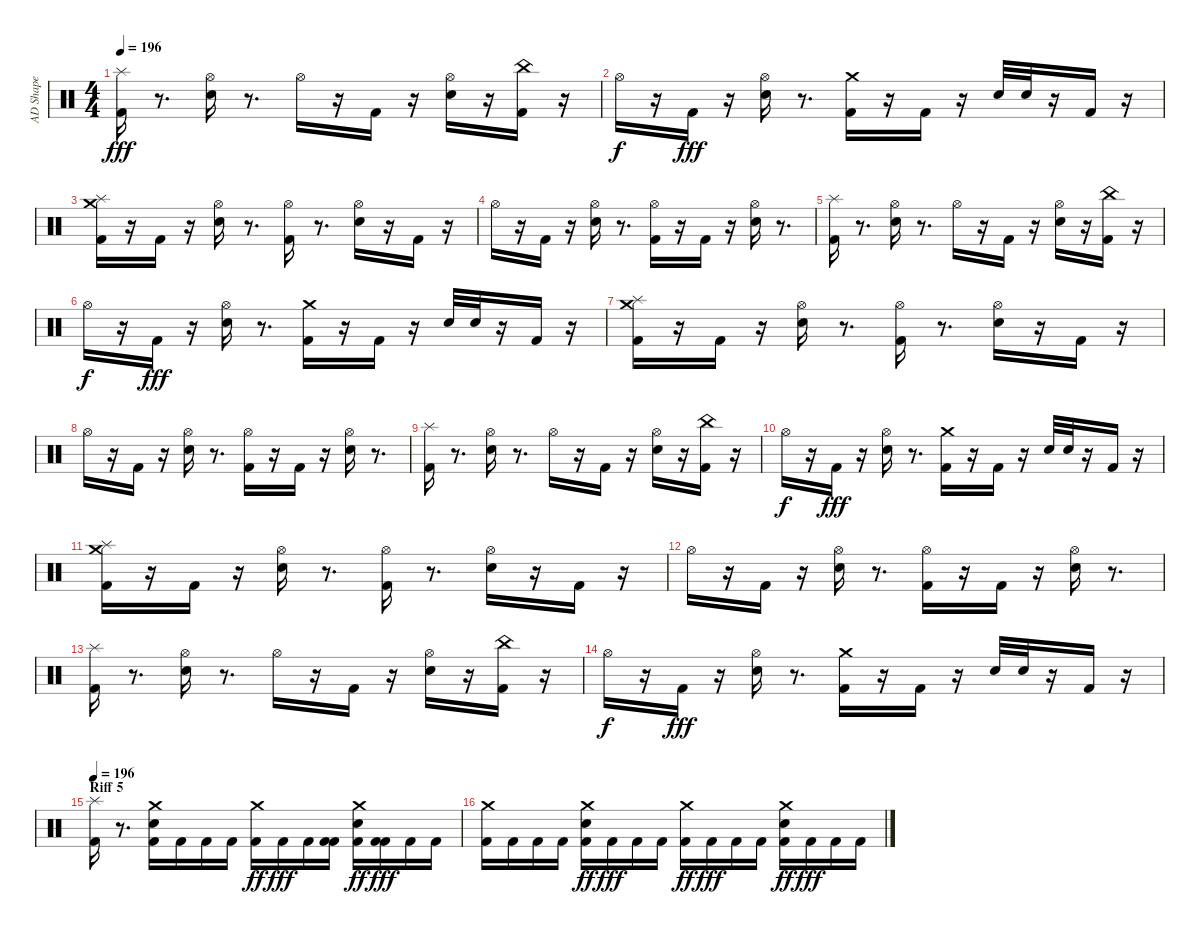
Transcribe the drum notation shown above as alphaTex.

\track ("AD Shape" "AD Shape") {instrument percussion}
\staff {score}
\articulation defaults
\ts (4 4)
\tempo 196
\clef neutral
\ks c
("Kick (hit) 2" "Splash (hit)").16{dy fff} r.8{d} ("Snare (hit) 2" "Hi-Hat (open)").16 r.8{d} "Hi-Hat (open)".16 r.16 "Kick (hit) 2".16 r.16 ("Snare (hit) 2" "Hi-Hat (open)").16 r.16 ("Kick (hit) 2" "China (hit)").16 r.16 |
"Hi-Hat (open)".16{dy f} r.16 "Kick (hit) 2".16{dy fff} r.16 ("Snare (hit) 2" "Hi-Hat (open)").16 r.8{d} ("Kick (hit) 2" "Crash medium (hit)").16 r.16 "Kick (hit) 2".16 r.16 "Snare (hit) 2".32 "Snare (hit) 2".32 r.16 "Kick (hit) 2".16 r.16 |
("Kick (hit) 2" "Splash (hit)" "Crash medium (hit)").16 r.16 "Kick (hit) 2".16 r.16 ("Snare (hit) 2" "Hi-Hat (open)").16 r.8{d} ("Kick (hit) 2" "Hi-Hat (open)").16 r.8{d} ("Snare (hit) 2" "Hi-Hat (open)").16 r.16 "Kick (hit) 2".16 r.16 |
"Hi-Hat (open)".16 r.16 "Kick (hit) 2".16 r.16 ("Snare (hit) 2" "Hi-Hat (open)").16 r.8{d} ("Kick (hit) 2" "Hi-Hat (open)").16 r.16 "Kick (hit) 2".16 r.16 ("Snare (hit) 2" "Hi-Hat (open)").16 r.8{d} |
("Kick (hit) 2" "Splash (hit)").16 r.8{d} ("Snare (hit) 2" "Hi-Hat (open)").16 r.8{d} "Hi-Hat (open)".16 r.16 "Kick (hit) 2".16 r.16 ("Snare (hit) 2" "Hi-Hat (open)").16 r.16 ("Kick (hit) 2" "China (hit)").16 r.16 |
"Hi-Hat (open)".16{dy f} r.16 "Kick (hit) 2".16{dy fff} r.16 ("Snare (hit) 2" "Hi-Hat (open)").16 r.8{d} ("Kick (hit) 2" "Crash medium (hit)").16 r.16 "Kick (hit) 2".16 r.16 "Snare (hit) 2".32 "Snare (hit) 2".32 r.16 "Kick (hit) 2".16 r.16 |
("Kick (hit) 2" "Splash (hit)" "Crash medium (hit)").16 r.16 "Kick (hit) 2".16 r.16 ("Snare (hit) 2" "Hi-Hat (open)").16 r.8{d} ("Kick (hit) 2" "Hi-Hat (open)").16 r.8{d} ("Snare (hit) 2" "Hi-Hat (open)").16 r.16 "Kick (hit) 2".16 r.16 |
"Hi-Hat (open)".16 r.16 "Kick (hit) 2".16 r.16 ("Snare (hit) 2" "Hi-Hat (open)").16 r.8{d} ("Kick (hit) 2" "Hi-Hat (open)").16 r.16 "Kick (hit) 2".16 r.16 ("Snare (hit) 2" "Hi-Hat (open)").16 r.8{d} |
("Kick (hit) 2" "Splash (hit)").16 r.8{d} ("Snare (hit) 2" "Hi-Hat (open)").16 r.8{d} "Hi-Hat (open)".16 r.16 "Kick (hit) 2".16 r.16 ("Snare (hit) 2" "Hi-Hat (open)").16 r.16 ("Kick (hit) 2" "China (hit)").16 r.16 |
"Hi-Hat (open)".16{dy f} r.16 "Kick (hit) 2".16{dy fff} r.16 ("Snare (hit) 2" "Hi-Hat (open)").16 r.8{d} ("Kick (hit) 2" "Crash medium (hit)").16 r.16 "Kick (hit) 2".16 r.16 "Snare (hit) 2".32 "Snare (hit) 2".32 r.16 "Kick (hit) 2".16 r.16 |
("Kick (hit) 2" "Splash (hit)" "Crash medium (hit)").16 r.16 "Kick (hit) 2".16 r.16 ("Snare (hit) 2" "Hi-Hat (open)").16 r.8{d} ("Kick (hit) 2" "Hi-Hat (open)").16 r.8{d} ("Snare (hit) 2" "Hi-Hat (open)").16 r.16 "Kick (hit) 2".16 r.16 |
"Hi-Hat (open)".16 r.16 "Kick (hit) 2".16 r.16 ("Snare (hit) 2" "Hi-Hat (open)").16 r.8{d} ("Kick (hit) 2" "Hi-Hat (open)").16 r.16 "Kick (hit) 2".16 r.16 ("Snare (hit) 2" "Hi-Hat (open)").16 r.8{d} |
("Kick (hit) 2" "Splash (hit)").16 r.8{d} ("Snare (hit) 2" "Hi-Hat (open)").16 r.8{d} "Hi-Hat (open)".16 r.16 "Kick (hit) 2".16 r.16 ("Snare (hit) 2" "Hi-Hat (open)").16 r.16 ("Kick (hit) 2" "China (hit)").16 r.16 |
"Hi-Hat (open)".16{dy f} r.16 "Kick (hit) 2".16{dy fff} r.16 ("Snare (hit) 2" "Hi-Hat (open)").16 r.8{d} ("Kick (hit) 2" "Crash medium (hit)").16 r.16 "Kick (hit) 2".16 r.16 "Snare (hit) 2".32 "Snare (hit) 2".32 r.16 "Kick (hit) 2".16 r.16 |
\section ("" "Riff 5")
\tempo 196
("Kick (hit) 2" "Splash (hit)").16 r.8{d} ("Kick (hit) 2" "Snare (hit) 2" "Crash medium (hit)").16 "Kick (hit) 2".16 "Kick (hit) 2".16 "Kick (hit) 2".16 ("Kick (hit) 2" "Crash medium (hit)").16{dy ff} "Kick (hit) 2".16{dy fff} "Kick (hit) 2".16 ("Kick (hit) 2" "Kick (hit) 2").16 ("Kick (hit) 2" "Snare (hit) 2" "Crash medium (hit)").16{dy ff} ("Kick (hit) 2" "Kick (hit) 2").16{dy fff} "Kick (hit) 2".16 "Kick (hit) 2".16 |
("Kick (hit) 2" "Crash medium (hit)").16 "Kick (hit) 2".16 "Kick (hit) 2".16 "Kick (hit) 2".16 ("Kick (hit) 2" "Snare (hit) 2" "Crash medium (hit)").16{dy ff} "Kick (hit) 2".16{dy fff} "Kick (hit) 2".16 "Kick (hit) 2".16 ("Kick (hit) 2" "Crash medium (hit)").16{dy ff} "Kick (hit) 2".16{dy fff} "Kick (hit) 2".16 "Kick (hit) 2".16 ("Kick (hit) 2" "Snare (hit) 2" "Crash medium (hit)").16{dy ff} "Kick (hit) 2".16{dy fff} "Kick (hit) 2".16 "Kick (hit) 2".16
